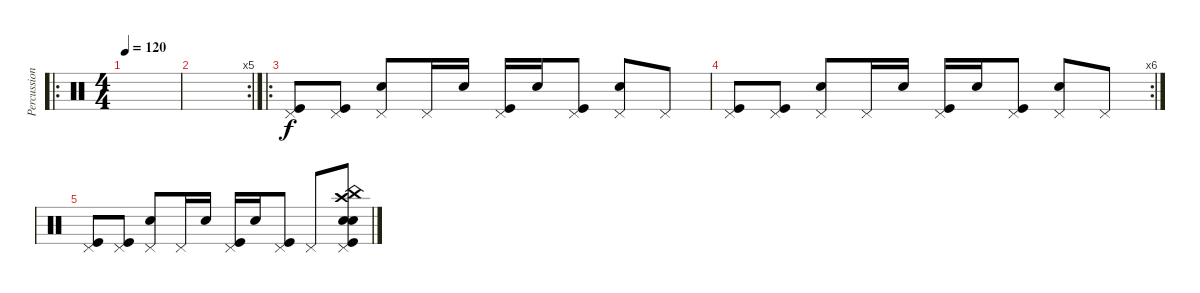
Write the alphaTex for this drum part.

\track ("Percussions" "Percussion") {instrument percussion}
\staff {score}
\articulation defaults
\ro
\ts (4 4)
\tempo 120
\clef neutral
\ks c
|
\rc 5
|
\ro
("Pedal Hi-Hat (hit)" "Kick (hit)").8 ("Pedal Hi-Hat (hit)" "Kick (hit)").8 ("Pedal Hi-Hat (hit)" "Snare (hit) 2").8 "Pedal Hi-Hat (hit)".16 "Snare (hit) 2".16 ("Pedal Hi-Hat (hit)" "Kick (hit)").16 "Snare (hit) 2".16 ("Pedal Hi-Hat (hit)" "Kick (hit)").8 ("Pedal Hi-Hat (hit)" "Snare (hit) 2").8 "Pedal Hi-Hat (hit)".8 |
\rc 6
("Pedal Hi-Hat (hit)" "Kick (hit)").8 ("Pedal Hi-Hat (hit)" "Kick (hit)").8 ("Pedal Hi-Hat (hit)" "Snare (hit) 2").8 "Pedal Hi-Hat (hit)".16 "Snare (hit) 2".16 ("Pedal Hi-Hat (hit)" "Kick (hit)").16 "Snare (hit) 2".16 ("Pedal Hi-Hat (hit)" "Kick (hit)").8 ("Pedal Hi-Hat (hit)" "Snare (hit) 2").8 "Pedal Hi-Hat (hit)".8 |
("Pedal Hi-Hat (hit)" "Kick (hit)").8 ("Pedal Hi-Hat (hit)" "Kick (hit)").8 ("Pedal Hi-Hat (hit)" "Snare (hit) 2").8 "Pedal Hi-Hat (hit)".16 "Snare (hit) 2".16 ("Pedal Hi-Hat (hit)" "Kick (hit)").16 "Snare (hit) 2".16 ("Pedal Hi-Hat (hit)" "Kick (hit)").8 "Pedal Hi-Hat (hit)".8 ("Pedal Hi-Hat (hit)" "Crash high (hit)" "China (hit)" "Snare (hit) 2" "Electric Snare (hit)" "Kick (hit)").8
